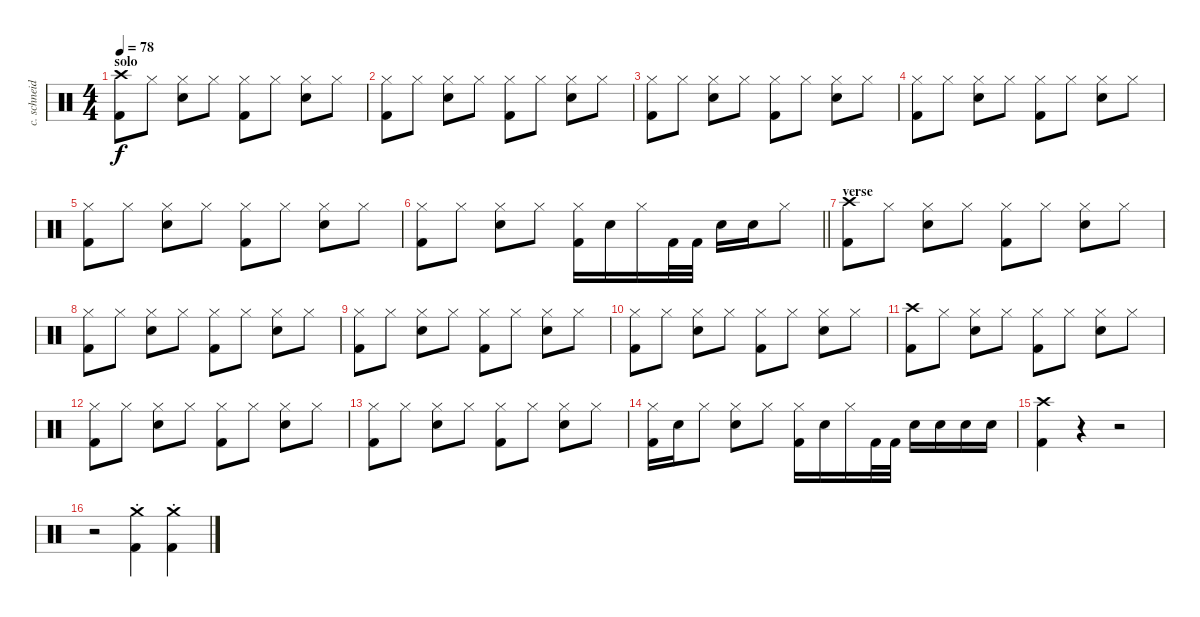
\track ("c. schneider - drums" "c. schneid") {instrument percussion}
\staff {score}
\articulation defaults
\ts (4 4)
\section ("" "solo")
\tempo 78
\clef neutral
\ks c
("Crash high (hit)" "Kick (hit) 2").8{dy f} "Hi-Hat (closed)".8 ("Hi-Hat (closed)" "Snare (hit) 2").8 "Hi-Hat (closed)".8 ("Hi-Hat (closed)" "Kick (hit) 2").8 "Hi-Hat (closed)".8 ("Hi-Hat (closed)" "Snare (hit) 2").8 "Hi-Hat (closed)".8 |
("Hi-Hat (closed)" "Kick (hit) 2").8 "Hi-Hat (closed)".8 ("Hi-Hat (closed)" "Snare (hit) 2").8 "Hi-Hat (closed)".8 ("Hi-Hat (closed)" "Kick (hit) 2").8 "Hi-Hat (closed)".8 ("Hi-Hat (closed)" "Snare (hit) 2").8 "Hi-Hat (closed)".8 |
("Hi-Hat (closed)" "Kick (hit) 2").8 "Hi-Hat (closed)".8 ("Hi-Hat (closed)" "Snare (hit) 2").8 "Hi-Hat (closed)".8 ("Hi-Hat (closed)" "Kick (hit) 2").8 "Hi-Hat (closed)".8 ("Hi-Hat (closed)" "Snare (hit) 2").8 "Hi-Hat (closed)".8 |
("Hi-Hat (closed)" "Kick (hit) 2").8 "Hi-Hat (closed)".8 ("Hi-Hat (closed)" "Snare (hit) 2").8 "Hi-Hat (closed)".8 ("Hi-Hat (closed)" "Kick (hit) 2").8 "Hi-Hat (closed)".8 ("Hi-Hat (closed)" "Snare (hit) 2").8 "Hi-Hat (closed)".8 |
("Hi-Hat (closed)" "Kick (hit) 2").8 "Hi-Hat (closed)".8 ("Hi-Hat (closed)" "Snare (hit) 2").8 "Hi-Hat (closed)".8 ("Hi-Hat (closed)" "Kick (hit) 2").8 "Hi-Hat (closed)".8 ("Hi-Hat (closed)" "Snare (hit) 2").8 "Hi-Hat (closed)".8 |
\barLineRight lightlight
("Hi-Hat (closed)" "Kick (hit) 2").8 "Hi-Hat (closed)".8 ("Hi-Hat (closed)" "Snare (hit) 2").8 "Hi-Hat (closed)".8 ("Hi-Hat (closed)" "Kick (hit) 2").16 "Snare (hit) 2".16 "Hi-Hat (closed)".16 "Kick (hit) 2".32 "Kick (hit) 2".32 "Snare (hit) 2".16 "Snare (hit) 2".16 "Hi-Hat (closed)".8 |
\section ("" "verse")
("Crash high (hit)" "Kick (hit) 2").8 "Hi-Hat (closed)".8 ("Hi-Hat (closed)" "Snare (hit) 2").8 "Hi-Hat (closed)".8 ("Hi-Hat (closed)" "Kick (hit) 2").8 "Hi-Hat (closed)".8 ("Hi-Hat (closed)" "Snare (hit) 2").8 "Hi-Hat (closed)".8 |
("Hi-Hat (closed)" "Kick (hit) 2").8 "Hi-Hat (closed)".8 ("Hi-Hat (closed)" "Snare (hit) 2").8 "Hi-Hat (closed)".8 ("Hi-Hat (closed)" "Kick (hit) 2").8 "Hi-Hat (closed)".8 ("Hi-Hat (closed)" "Snare (hit) 2").8 "Hi-Hat (closed)".8 |
("Hi-Hat (closed)" "Kick (hit) 2").8 "Hi-Hat (closed)".8 ("Hi-Hat (closed)" "Snare (hit) 2").8 "Hi-Hat (closed)".8 ("Hi-Hat (closed)" "Kick (hit) 2").8 "Hi-Hat (closed)".8 ("Hi-Hat (closed)" "Snare (hit) 2").8 "Hi-Hat (closed)".8 |
("Hi-Hat (closed)" "Kick (hit) 2").8 "Hi-Hat (closed)".8 ("Hi-Hat (closed)" "Snare (hit) 2").8 "Hi-Hat (closed)".8 ("Hi-Hat (closed)" "Kick (hit) 2").8 "Hi-Hat (closed)".8 ("Hi-Hat (closed)" "Snare (hit) 2").8 "Hi-Hat (closed)".8 |
("Crash high (hit)" "Kick (hit) 2").8 "Hi-Hat (closed)".8 ("Hi-Hat (closed)" "Snare (hit) 2").8 "Hi-Hat (closed)".8 ("Hi-Hat (closed)" "Kick (hit) 2").8 "Hi-Hat (closed)".8 ("Hi-Hat (closed)" "Snare (hit) 2").8 "Hi-Hat (closed)".8 |
("Hi-Hat (closed)" "Kick (hit) 2").8 "Hi-Hat (closed)".8 ("Hi-Hat (closed)" "Snare (hit) 2").8 "Hi-Hat (closed)".8 ("Hi-Hat (closed)" "Kick (hit) 2").8 "Hi-Hat (closed)".8 ("Hi-Hat (closed)" "Snare (hit) 2").8 "Hi-Hat (closed)".8 |
("Hi-Hat (closed)" "Kick (hit) 2").8 "Hi-Hat (closed)".8 ("Hi-Hat (closed)" "Snare (hit) 2").8 "Hi-Hat (closed)".8 ("Hi-Hat (closed)" "Kick (hit) 2").8 "Hi-Hat (closed)".8 ("Hi-Hat (closed)" "Snare (hit) 2").8 "Hi-Hat (closed)".8 |
("Hi-Hat (closed)" "Kick (hit) 2").16 "Snare (hit) 2".16 "Hi-Hat (closed)".8 ("Hi-Hat (closed)" "Snare (hit) 2").8 "Hi-Hat (closed)".8 ("Hi-Hat (closed)" "Kick (hit) 2").16 "Snare (hit) 2".16 "Hi-Hat (closed)".16 "Kick (hit) 2".32 "Kick (hit) 2".32 "Snare (hit) 2".16 "Snare (hit) 2".16 "Snare (hit) 2".16 "Snare (hit) 2".16 |
("Crash high (hit)" "Kick (hit) 2").4 r.4 r.2 |
r.2 ("Crash medium (hit)"{st} "Kick (hit) 2"{st}).4 ("Crash medium (hit)"{st} "Kick (hit) 2"{st}).4
